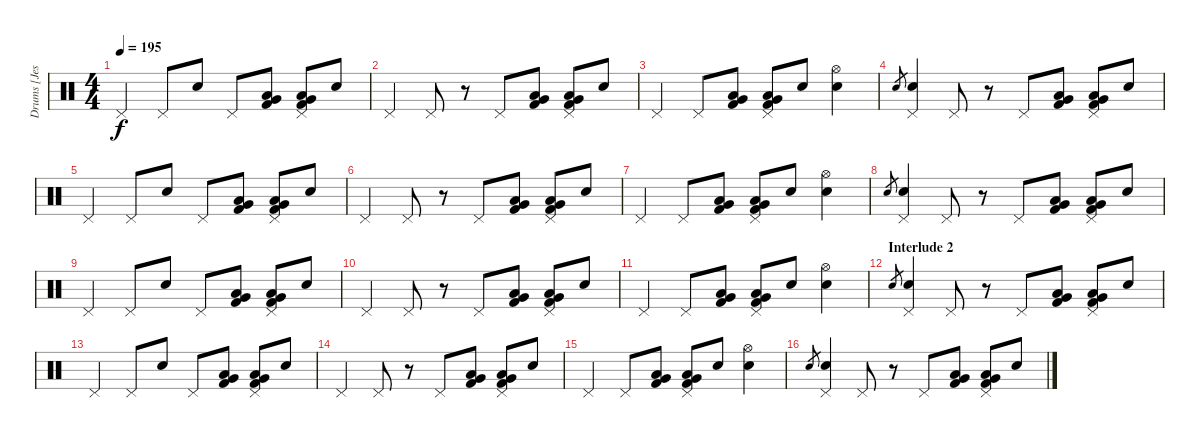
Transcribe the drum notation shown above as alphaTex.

\track ("Drums [Jesse Ingelevics]" "Drums [Jes") {instrument percussion}
\staff {score}
\articulation defaults
\ts (4 4)
\tempo 195
\clef neutral
\ks c "Pedal Hi-Hat (hit)".4{dy f} "Pedal Hi-Hat (hit)".8 "Electric Snare (hit)".8 "Pedal Hi-Hat (hit)".8
("Very Low Tom (hit)" "Low Floor Tom (hit)" "Kick (hit) 2").8 ("Pedal Hi-Hat (hit)" "Very Low Tom (hit)" "Low Floor Tom (hit)" "Kick (hit) 2").8 "Electric Snare (hit)".8 |
"Pedal Hi-Hat (hit)".4 "Pedal Hi-Hat (hit)".8 r.8 "Pedal Hi-Hat (hit)".8 ("Very Low Tom (hit)" "Low Floor Tom (hit)" "Kick (hit) 2").8 ("Pedal Hi-Hat (hit)" "Very Low Tom (hit)" "Low Floor Tom (hit)" "Kick (hit) 2").8 "Electric Snare (hit)".8 |
"Pedal Hi-Hat (hit)".4 "Pedal Hi-Hat (hit)".8 ("Very Low Tom (hit)" "Low Floor Tom (hit)" "Kick (hit) 2").8 ("Pedal Hi-Hat (hit)" "Very Low Tom (hit)" "Low Floor Tom (hit)" "Kick (hit) 2").8 "Electric Snare (hit)".8 ("Hi-Hat (open)" "Electric Snare (hit)").4 |
"Electric Snare (hit)".8{gr} ("Pedal Hi-Hat (hit)" "Electric Snare (hit)").4 "Pedal Hi-Hat (hit)".8 r.8 "Pedal Hi-Hat (hit)".8 ("Very Low Tom (hit)" "Low Floor Tom (hit)" "Kick (hit) 2").8 ("Pedal Hi-Hat (hit)" "Very Low Tom (hit)" "Low Floor Tom (hit)" "Kick (hit) 2").8 "Electric Snare (hit)".8 |
"Pedal Hi-Hat (hit)".4 "Pedal Hi-Hat (hit)".8 "Electric Snare (hit)".8 "Pedal Hi-Hat (hit)".8 ("Very Low Tom (hit)" "Low Floor Tom (hit)" "Kick (hit) 2").8 ("Pedal Hi-Hat (hit)" "Very Low Tom (hit)" "Low Floor Tom (hit)" "Kick (hit) 2").8 "Electric Snare (hit)".8 |
"Pedal Hi-Hat (hit)".4 "Pedal Hi-Hat (hit)".8 r.8 "Pedal Hi-Hat (hit)".8 ("Very Low Tom (hit)" "Low Floor Tom (hit)" "Kick (hit) 2").8 ("Pedal Hi-Hat (hit)" "Very Low Tom (hit)" "Low Floor Tom (hit)" "Kick (hit) 2").8 "Electric Snare (hit)".8 |
"Pedal Hi-Hat (hit)".4 "Pedal Hi-Hat (hit)".8 ("Very Low Tom (hit)" "Low Floor Tom (hit)" "Kick (hit) 2").8 ("Pedal Hi-Hat (hit)" "Very Low Tom (hit)" "Low Floor Tom (hit)" "Kick (hit) 2").8 "Electric Snare (hit)".8 ("Hi-Hat (open)" "Electric Snare (hit)").4 |
"Electric Snare (hit)".8{gr} ("Pedal Hi-Hat (hit)" "Electric Snare (hit)").4 "Pedal Hi-Hat (hit)".8 r.8 "Pedal Hi-Hat (hit)".8 ("Very Low Tom (hit)" "Low Floor Tom (hit)" "Kick (hit) 2").8 ("Pedal Hi-Hat (hit)" "Very Low Tom (hit)" "Low Floor Tom (hit)" "Kick (hit) 2").8 "Electric Snare (hit)".8 |
"Pedal Hi-Hat (hit)".4 "Pedal Hi-Hat (hit)".8 "Electric Snare (hit)".8 "Pedal Hi-Hat (hit)".8 ("Very Low Tom (hit)" "Low Floor Tom (hit)" "Kick (hit) 2").8 ("Pedal Hi-Hat (hit)" "Very Low Tom (hit)" "Low Floor Tom (hit)" "Kick (hit) 2").8 "Electric Snare (hit)".8 |
"Pedal Hi-Hat (hit)".4 "Pedal Hi-Hat (hit)".8 r.8 "Pedal Hi-Hat (hit)".8 ("Very Low Tom (hit)" "Low Floor Tom (hit)" "Kick (hit) 2").8 ("Pedal Hi-Hat (hit)" "Very Low Tom (hit)" "Low Floor Tom (hit)" "Kick (hit) 2").8 "Electric Snare (hit)".8 |
"Pedal Hi-Hat (hit)".4 "Pedal Hi-Hat (hit)".8 ("Very Low Tom (hit)" "Low Floor Tom (hit)" "Kick (hit) 2").8 ("Pedal Hi-Hat (hit)" "Very Low Tom (hit)" "Low Floor Tom (hit)" "Kick (hit) 2").8 "Electric Snare (hit)".8 ("Hi-Hat (open)" "Electric Snare (hit)").4 |
\section ("" "Interlude 2")
"Electric Snare (hit)".8{gr} ("Pedal Hi-Hat (hit)" "Electric Snare (hit)").4 "Pedal Hi-Hat (hit)".8 r.8 "Pedal Hi-Hat (hit)".8 ("Very Low Tom (hit)" "Low Floor Tom (hit)" "Kick (hit) 2").8 ("Pedal Hi-Hat (hit)" "Very Low Tom (hit)" "Low Floor Tom (hit)" "Kick (hit) 2").8 "Electric Snare (hit)".8 |
"Pedal Hi-Hat (hit)".4 "Pedal Hi-Hat (hit)".8 "Electric Snare (hit)".8 "Pedal Hi-Hat (hit)".8 ("Very Low Tom (hit)" "Low Floor Tom (hit)" "Kick (hit) 2").8 ("Pedal Hi-Hat (hit)" "Very Low Tom (hit)" "Low Floor Tom (hit)" "Kick (hit) 2").8 "Electric Snare (hit)".8 |
"Pedal Hi-Hat (hit)".4 "Pedal Hi-Hat (hit)".8 r.8 "Pedal Hi-Hat (hit)".8 ("Very Low Tom (hit)" "Low Floor Tom (hit)" "Kick (hit) 2").8 ("Pedal Hi-Hat (hit)" "Very Low Tom (hit)" "Low Floor Tom (hit)" "Kick (hit) 2").8 "Electric Snare (hit)".8 |
"Pedal Hi-Hat (hit)".4 "Pedal Hi-Hat (hit)".8 ("Very Low Tom (hit)" "Low Floor Tom (hit)" "Kick (hit) 2").8 ("Pedal Hi-Hat (hit)" "Very Low Tom (hit)" "Low Floor Tom (hit)" "Kick (hit) 2").8 "Electric Snare (hit)".8 ("Hi-Hat (open)" "Electric Snare (hit)").4 |
"Electric Snare (hit)".8{gr} ("Pedal Hi-Hat (hit)" "Electric Snare (hit)").4 "Pedal Hi-Hat (hit)".8 r.8 "Pedal Hi-Hat (hit)".8 ("Very Low Tom (hit)" "Low Floor Tom (hit)" "Kick (hit) 2").8 ("Pedal Hi-Hat (hit)" "Very Low Tom (hit)" "Low Floor Tom (hit)" "Kick (hit) 2").8 "Electric Snare (hit)".8
